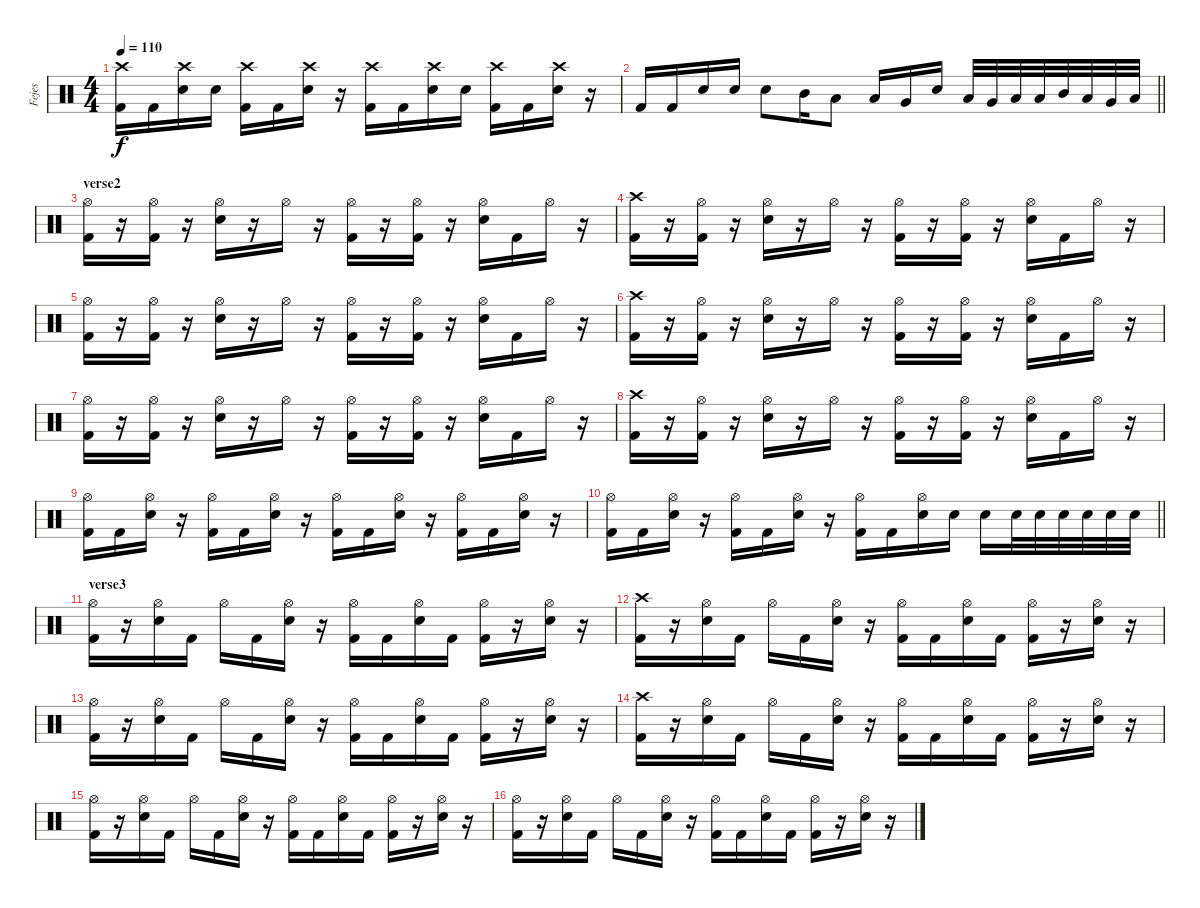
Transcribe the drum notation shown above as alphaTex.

\track ("Fejes" "Fejes") {instrument percussion}
\staff {score}
\articulation defaults
\ts (4 4)
\tempo 110
\clef neutral
\ks c
("Crash high (hit)" "Kick (hit) 2").16{dy f} "Kick (hit) 2".16 ("Crash high (hit)" "Snare (hit) 2").16 "Snare (hit) 2".16 ("Crash high (hit)" "Kick (hit) 2").16 "Kick (hit) 2".16 ("Crash high (hit)" "Snare (hit) 2").16 r.16 ("Crash high (hit)" "Kick (hit) 2").16 "Kick (hit) 2".16 ("Crash high (hit)" "Snare (hit) 2").16 "Snare (hit) 2".16 ("Crash high (hit)" "Kick (hit) 2").16 "Kick (hit) 2".16 ("Crash high (hit)" "Snare (hit) 2").16 r.16 |
\barLineRight lightlight "Kick (hit) 2".16 "Kick (hit) 2".16 "Snare (hit) 2".16 "Snare (hit) 2".16 "Snare (hit) 2".8 "Mid Tom (hit)".16 "Low Tom (hit)".8 "Low Tom (hit)".16 "Very Low Tom (hit)".16 "Snare (hit) 2".16 "Low Tom (hit)".32 "Very Low Tom (hit)".32 "Low Tom (hit)".32 "Low Floor Tom (hit)".32 "Mid Tom (hit)".32 "Low Tom (hit)".32 "Very Low Tom (hit)".32 "Low Floor Tom (hit)".32
|
\section ("" "verse2")
("Hi-Hat (open)" "Kick (hit) 2").16 r.16 ("Hi-Hat (open)" "Kick (hit) 2").16 r.16 ("Hi-Hat (open)" "Snare (hit) 2").16 r.16 "Hi-Hat (open)".16 r.16 ("Hi-Hat (open)" "Kick (hit) 2").16 r.16 ("Hi-Hat (open)" "Kick (hit) 2").16 r.16 ("Hi-Hat (open)" "Snare (hit) 2").16 "Kick (hit) 2".16 "Hi-Hat (open)".16 r.16 |
("Crash high (hit)" "Kick (hit) 2").16 r.16 ("Hi-Hat (open)" "Kick (hit) 2").16 r.16 ("Hi-Hat (open)" "Snare (hit) 2").16 r.16 "Hi-Hat (open)".16 r.16 ("Hi-Hat (open)" "Kick (hit) 2").16 r.16 ("Hi-Hat (open)" "Kick (hit) 2").16 r.16 ("Hi-Hat (open)" "Snare (hit) 2").16 "Kick (hit) 2".16 "Hi-Hat (open)".16 r.16 |
("Hi-Hat (open)" "Kick (hit) 2").16 r.16 ("Hi-Hat (open)" "Kick (hit) 2").16 r.16 ("Hi-Hat (open)" "Snare (hit) 2").16 r.16 "Hi-Hat (open)".16 r.16 ("Hi-Hat (open)" "Kick (hit) 2").16 r.16 ("Hi-Hat (open)" "Kick (hit) 2").16 r.16 ("Hi-Hat (open)" "Snare (hit) 2").16 "Kick (hit) 2".16 "Hi-Hat (open)".16 r.16 |
("Crash high (hit)" "Kick (hit) 2").16 r.16 ("Hi-Hat (open)" "Kick (hit) 2").16 r.16 ("Hi-Hat (open)" "Snare (hit) 2").16 r.16 "Hi-Hat (open)".16 r.16 ("Hi-Hat (open)" "Kick (hit) 2").16 r.16 ("Hi-Hat (open)" "Kick (hit) 2").16 r.16 ("Hi-Hat (open)" "Snare (hit) 2").16 "Kick (hit) 2".16 "Hi-Hat (open)".16 r.16 |
("Hi-Hat (open)" "Kick (hit) 2").16 r.16 ("Hi-Hat (open)" "Kick (hit) 2").16 r.16 ("Hi-Hat (open)" "Snare (hit) 2").16 r.16 "Hi-Hat (open)".16 r.16 ("Hi-Hat (open)" "Kick (hit) 2").16 r.16 ("Hi-Hat (open)" "Kick (hit) 2").16 r.16 ("Hi-Hat (open)" "Snare (hit) 2").16 "Kick (hit) 2".16 "Hi-Hat (open)".16 r.16 |
("Crash high (hit)" "Kick (hit) 2").16 r.16 ("Hi-Hat (open)" "Kick (hit) 2").16 r.16 ("Hi-Hat (open)" "Snare (hit) 2").16 r.16 "Hi-Hat (open)".16 r.16 ("Hi-Hat (open)" "Kick (hit) 2").16 r.16 ("Hi-Hat (open)" "Kick (hit) 2").16 r.16 ("Hi-Hat (open)" "Snare (hit) 2").16 "Kick (hit) 2".16 "Hi-Hat (open)".16 r.16 |
("Hi-Hat (open)" "Kick (hit) 2").16 "Kick (hit) 2".16 ("Hi-Hat (open)" "Snare (hit) 2").16 r.16 ("Hi-Hat (open)" "Kick (hit) 2").16 "Kick (hit) 2".16 ("Hi-Hat (open)" "Snare (hit) 2").16 r.16 ("Hi-Hat (open)" "Kick (hit) 2").16 "Kick (hit) 2".16 ("Hi-Hat (open)" "Snare (hit) 2").16 r.16 ("Hi-Hat (open)" "Kick (hit) 2").16 "Kick (hit) 2".16 ("Hi-Hat (open)" "Snare (hit) 2").16 r.16 |
\barLineRight lightlight
("Hi-Hat (open)" "Kick (hit) 2").16 "Kick (hit) 2".16 ("Hi-Hat (open)" "Snare (hit) 2").16 r.16 ("Hi-Hat (open)" "Kick (hit) 2").16 "Kick (hit) 2".16 ("Hi-Hat (open)" "Snare (hit) 2").16 r.16 ("Hi-Hat (open)" "Kick (hit) 2").16 "Kick (hit) 2".16 ("Hi-Hat (open)" "Snare (hit) 2").16 "Snare (hit) 2".16 "Snare (hit) 2".16 "Snare (hit) 2".32 "Snare (hit) 2".32 "Snare (hit) 2".32 "Snare (hit) 2".32 "Snare (hit) 2".32 "Snare (hit) 2".32 |
\section ("" "verse3")
("Hi-Hat (open)" "Kick (hit) 2").16 r.16 ("Hi-Hat (open)" "Snare (hit) 2").16 "Kick (hit) 2".16 "Hi-Hat (open)".16 "Kick (hit) 2".16 ("Hi-Hat (open)" "Snare (hit) 2").16 r.16 ("Hi-Hat (open)" "Kick (hit) 2").16 "Kick (hit) 2".16 ("Hi-Hat (open)" "Snare (hit) 2").16 "Kick (hit) 2".16 ("Hi-Hat (open)" "Kick (hit) 2").16 r.16 ("Hi-Hat (open)" "Snare (hit) 2").16 r.16 |
("Crash high (hit)" "Kick (hit) 2").16 r.16 ("Hi-Hat (open)" "Snare (hit) 2").16 "Kick (hit) 2".16 "Hi-Hat (open)".16 "Kick (hit) 2".16 ("Hi-Hat (open)" "Snare (hit) 2").16 r.16 ("Hi-Hat (open)" "Kick (hit) 2").16 "Kick (hit) 2".16 ("Hi-Hat (open)" "Snare (hit) 2").16 "Kick (hit) 2".16 ("Hi-Hat (open)" "Kick (hit) 2").16 r.16 ("Hi-Hat (open)" "Snare (hit) 2").16 r.16 |
("Hi-Hat (open)" "Kick (hit) 2").16 r.16 ("Hi-Hat (open)" "Snare (hit) 2").16 "Kick (hit) 2".16 "Hi-Hat (open)".16 "Kick (hit) 2".16 ("Hi-Hat (open)" "Snare (hit) 2").16 r.16 ("Hi-Hat (open)" "Kick (hit) 2").16 "Kick (hit) 2".16 ("Hi-Hat (open)" "Snare (hit) 2").16 "Kick (hit) 2".16 ("Hi-Hat (open)" "Kick (hit) 2").16 r.16 ("Hi-Hat (open)" "Snare (hit) 2").16 r.16 |
("Crash high (hit)" "Kick (hit) 2").16 r.16 ("Hi-Hat (open)" "Snare (hit) 2").16 "Kick (hit) 2".16 "Hi-Hat (open)".16 "Kick (hit) 2".16 ("Hi-Hat (open)" "Snare (hit) 2").16 r.16 ("Hi-Hat (open)" "Kick (hit) 2").16 "Kick (hit) 2".16 ("Hi-Hat (open)" "Snare (hit) 2").16 "Kick (hit) 2".16 ("Hi-Hat (open)" "Kick (hit) 2").16 r.16 ("Hi-Hat (open)" "Snare (hit) 2").16 r.16 |
("Hi-Hat (open)" "Kick (hit) 2").16 r.16 ("Hi-Hat (open)" "Snare (hit) 2").16 "Kick (hit) 2".16 "Hi-Hat (open)".16 "Kick (hit) 2".16 ("Hi-Hat (open)" "Snare (hit) 2").16 r.16 ("Hi-Hat (open)" "Kick (hit) 2").16 "Kick (hit) 2".16 ("Hi-Hat (open)" "Snare (hit) 2").16 "Kick (hit) 2".16 ("Hi-Hat (open)" "Kick (hit) 2").16 r.16 ("Hi-Hat (open)" "Snare (hit) 2").16 r.16 |
("Hi-Hat (open)" "Kick (hit) 2").16 r.16 ("Hi-Hat (open)" "Snare (hit) 2").16 "Kick (hit) 2".16 "Hi-Hat (open)".16 "Kick (hit) 2".16 ("Hi-Hat (open)" "Snare (hit) 2").16 r.16 ("Hi-Hat (open)" "Kick (hit) 2").16 "Kick (hit) 2".16 ("Hi-Hat (open)" "Snare (hit) 2").16 "Kick (hit) 2".16 ("Hi-Hat (open)" "Kick (hit) 2").16 r.16 ("Hi-Hat (open)" "Snare (hit) 2").16 r.16
